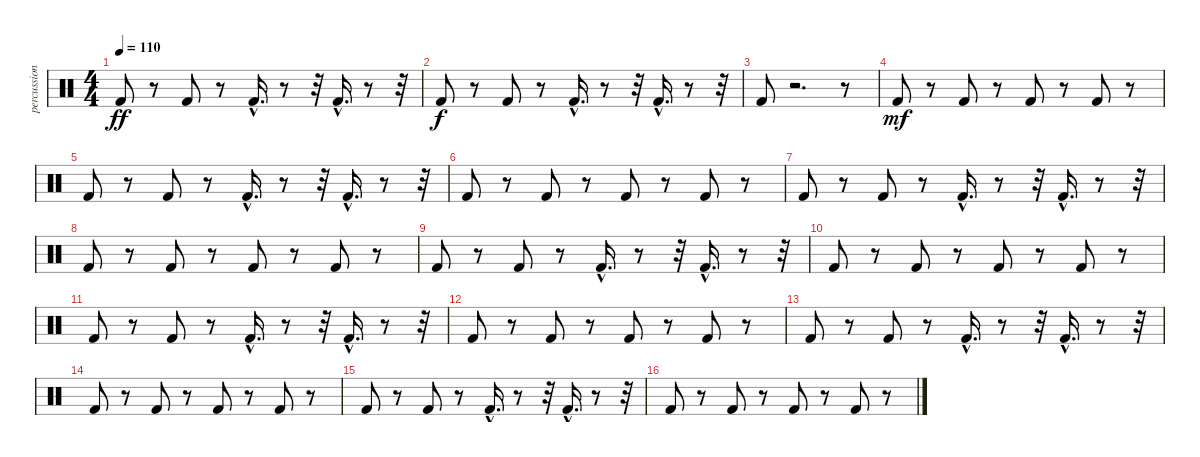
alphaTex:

\track ("percussions 1" "percussion") {instrument percussion}
\staff {score}
\articulation defaults
\ts (4 4)
\tempo 110
\clef neutral
\ks c "Kick (hit) 2".8{dy ff}
r.8 "Kick (hit) 2".8 r.8 "Kick (hit) 2"{hac}.16{d} r.8 r.32 "Kick (hit) 2"{hac}.16{d} r.8 r.32 |
"Kick (hit) 2".8{dy f} r.8 "Kick (hit) 2".8 r.8 "Kick (hit) 2"{hac}.16{d} r.8 r.32 "Kick (hit) 2"{hac}.16{d} r.8 r.32 |
"Kick (hit) 2".8 r.2{d} r.8 |
"Kick (hit) 2".8{dy mf} r.8 "Kick (hit) 2".8 r.8 "Kick (hit) 2".8 r.8 "Kick (hit) 2".8 r.8 |
"Kick (hit) 2".8 r.8 "Kick (hit) 2".8 r.8 "Kick (hit) 2"{hac}.16{d} r.8 r.32 "Kick (hit) 2"{hac}.16{d} r.8 r.32 |
"Kick (hit) 2".8 r.8 "Kick (hit) 2".8 r.8 "Kick (hit) 2".8 r.8 "Kick (hit) 2".8 r.8 |
"Kick (hit) 2".8 r.8 "Kick (hit) 2".8 r.8 "Kick (hit) 2"{hac}.16{d} r.8 r.32 "Kick (hit) 2"{hac}.16{d} r.8 r.32 |
"Kick (hit) 2".8 r.8 "Kick (hit) 2".8 r.8 "Kick (hit) 2".8 r.8 "Kick (hit) 2".8 r.8 |
"Kick (hit) 2".8 r.8 "Kick (hit) 2".8 r.8 "Kick (hit) 2"{hac}.16{d} r.8 r.32 "Kick (hit) 2"{hac}.16{d} r.8 r.32 |
"Kick (hit) 2".8 r.8 "Kick (hit) 2".8 r.8 "Kick (hit) 2".8 r.8 "Kick (hit) 2".8 r.8 |
"Kick (hit) 2".8 r.8 "Kick (hit) 2".8 r.8 "Kick (hit) 2"{hac}.16{d} r.8 r.32 "Kick (hit) 2"{hac}.16{d} r.8 r.32 |
"Kick (hit) 2".8 r.8 "Kick (hit) 2".8 r.8 "Kick (hit) 2".8 r.8 "Kick (hit) 2".8 r.8 |
"Kick (hit) 2".8 r.8 "Kick (hit) 2".8 r.8 "Kick (hit) 2"{hac}.16{d} r.8 r.32 "Kick (hit) 2"{hac}.16{d} r.8 r.32 |
"Kick (hit) 2".8 r.8 "Kick (hit) 2".8 r.8 "Kick (hit) 2".8 r.8 "Kick (hit) 2".8 r.8 |
"Kick (hit) 2".8 r.8 "Kick (hit) 2".8 r.8 "Kick (hit) 2"{hac}.16{d} r.8 r.32 "Kick (hit) 2"{hac}.16{d} r.8 r.32 |
"Kick (hit) 2".8 r.8 "Kick (hit) 2".8 r.8 "Kick (hit) 2".8 r.8 "Kick (hit) 2".8 r.8
